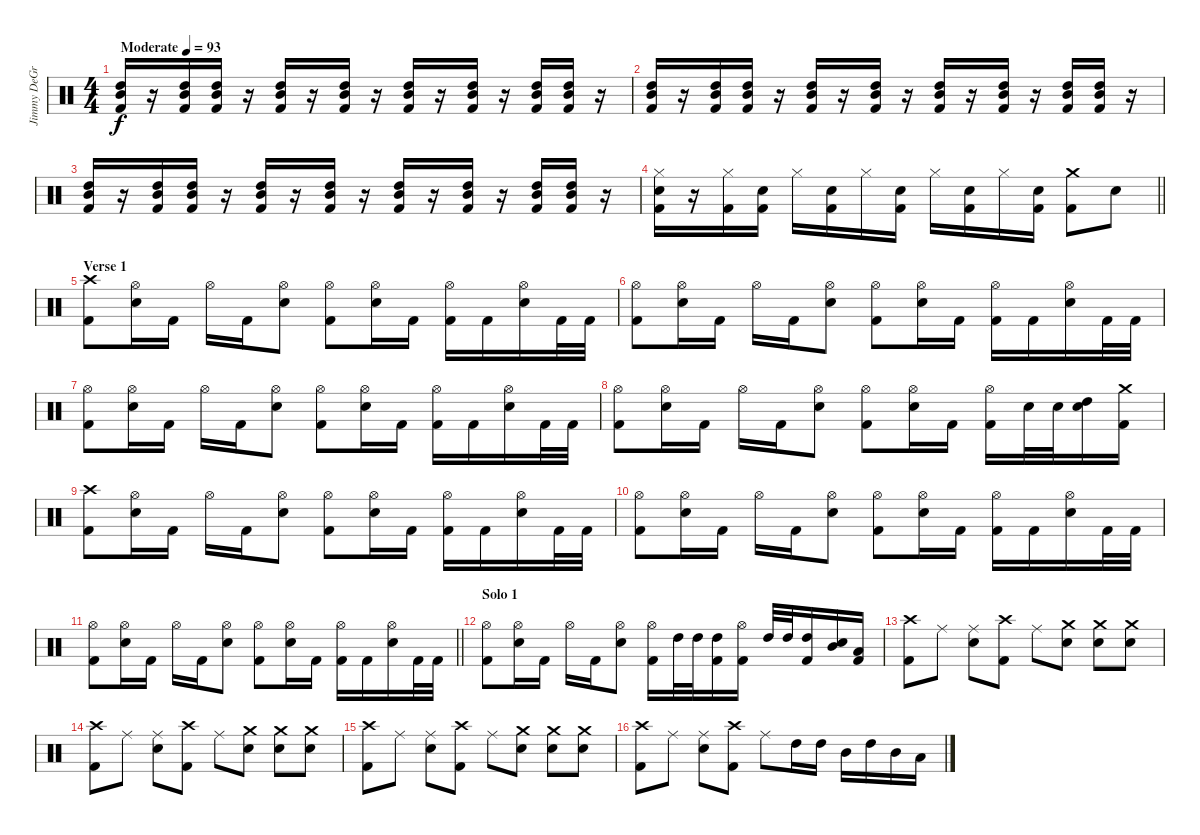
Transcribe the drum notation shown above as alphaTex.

\track ("Jimmy DeGrasso" "Jimmy DeGr") {instrument percussion}
\staff {score}
\articulation defaults
\ts (4 4)
\tempo (93 "Moderate")
\clef neutral
\ks c
("High Tom (hit)" "Mid Tom (hit)" "Kick (hit) 2").16{dy f} r.16 ("High Tom (hit)" "Mid Tom (hit)" "Kick (hit) 2").16 ("High Tom (hit)" "Mid Tom (hit)" "Kick (hit) 2").16 r.16 ("High Tom (hit)" "Mid Tom (hit)" "Kick (hit) 2").16 r.16 ("High Tom (hit)" "Mid Tom (hit)" "Kick (hit) 2").16 r.16 ("High Tom (hit)" "Mid Tom (hit)" "Kick (hit) 2").16 r.16 ("High Tom (hit)" "Mid Tom (hit)" "Kick (hit) 2").16 r.16 ("High Tom (hit)" "Mid Tom (hit)" "Kick (hit) 2").16 ("High Tom (hit)" "Mid Tom (hit)" "Kick (hit) 2").16 r.16 |
("High Tom (hit)" "Mid Tom (hit)" "Kick (hit) 2").16 r.16 ("High Tom (hit)" "Mid Tom (hit)" "Kick (hit) 2").16 ("High Tom (hit)" "Mid Tom (hit)" "Kick (hit) 2").16 r.16 ("High Tom (hit)" "Mid Tom (hit)" "Kick (hit) 2").16 r.16 ("High Tom (hit)" "Mid Tom (hit)" "Kick (hit) 2").16 r.16 ("High Tom (hit)" "Mid Tom (hit)" "Kick (hit) 2").16 r.16 ("High Tom (hit)" "Mid Tom (hit)" "Kick (hit) 2").16 r.16 ("High Tom (hit)" "Mid Tom (hit)" "Kick (hit) 2").16 ("High Tom (hit)" "Mid Tom (hit)" "Kick (hit) 2").16 r.16 |
("High Tom (hit)" "Mid Tom (hit)" "Kick (hit) 2").16 r.16 ("High Tom (hit)" "Mid Tom (hit)" "Kick (hit) 2").16 ("High Tom (hit)" "Mid Tom (hit)" "Kick (hit) 2").16 r.16 ("High Tom (hit)" "Mid Tom (hit)" "Kick (hit) 2").16 r.16 ("High Tom (hit)" "Mid Tom (hit)" "Kick (hit) 2").16 r.16 ("High Tom (hit)" "Mid Tom (hit)" "Kick (hit) 2").16 r.16 ("High Tom (hit)" "Mid Tom (hit)" "Kick (hit) 2").16 r.16 ("High Tom (hit)" "Mid Tom (hit)" "Kick (hit) 2").16 ("High Tom (hit)" "Mid Tom (hit)" "Kick (hit) 2").16 r.16 |
\barLineRight lightlight
("Hi-Hat (closed)" "Electric Snare (hit)" "Kick (hit) 2").16 r.16 ("Hi-Hat (closed)" "Kick (hit) 2").16 ("Electric Snare (hit)" "Kick (hit) 2").16 "Hi-Hat (closed)".16 ("Electric Snare (hit)" "Kick (hit) 2").16 "Hi-Hat (closed)".16 ("Electric Snare (hit)" "Kick (hit) 2").16 "Hi-Hat (closed)".16 ("Electric Snare (hit)" "Kick (hit) 2").16 "Hi-Hat (closed)".16 ("Electric Snare (hit)" "Kick (hit) 2").16 ("Crash medium (hit)" "Kick (hit) 2").8 "Electric Snare (hit)".8 |
\section ("" "Verse 1")
("Crash high (hit)" "Kick (hit) 2").8 ("Hi-Hat (open)" "Electric Snare (hit)").16 "Kick (hit) 2".16 "Hi-Hat (open)".16 "Kick (hit) 2".16 ("Hi-Hat (open)" "Electric Snare (hit)").8 ("Hi-Hat (open)" "Kick (hit) 2").8 ("Hi-Hat (open)" "Electric Snare (hit)").16 "Kick (hit) 2".16 ("Hi-Hat (open)" "Kick (hit) 2").16 "Kick (hit) 2".16 ("Hi-Hat (open)" "Electric Snare (hit)").16 "Kick (hit) 2".32 "Kick (hit) 2".32 |
("Hi-Hat (open)" "Kick (hit) 2").8 ("Hi-Hat (open)" "Electric Snare (hit)").16 "Kick (hit) 2".16 "Hi-Hat (open)".16 "Kick (hit) 2".16 ("Hi-Hat (open)" "Electric Snare (hit)").8 ("Hi-Hat (open)" "Kick (hit) 2").8 ("Hi-Hat (open)" "Electric Snare (hit)").16 "Kick (hit) 2".16 ("Hi-Hat (open)" "Kick (hit) 2").16 "Kick (hit) 2".16 ("Hi-Hat (open)" "Electric Snare (hit)").16 "Kick (hit) 2".32 "Kick (hit) 2".32 |
("Hi-Hat (open)" "Kick (hit) 2").8 ("Hi-Hat (open)" "Electric Snare (hit)").16 "Kick (hit) 2".16 "Hi-Hat (open)".16 "Kick (hit) 2".16 ("Hi-Hat (open)" "Electric Snare (hit)").8 ("Hi-Hat (open)" "Kick (hit) 2").8 ("Hi-Hat (open)" "Electric Snare (hit)").16 "Kick (hit) 2".16 ("Hi-Hat (open)" "Kick (hit) 2").16 "Kick (hit) 2".16 ("Hi-Hat (open)" "Electric Snare (hit)").16 "Kick (hit) 2".32 "Kick (hit) 2".32 |
("Hi-Hat (open)" "Kick (hit) 2").8 ("Hi-Hat (open)" "Electric Snare (hit)").16 "Kick (hit) 2".16 "Hi-Hat (open)".16 "Kick (hit) 2".16 ("Hi-Hat (open)" "Electric Snare (hit)").8 ("Hi-Hat (open)" "Kick (hit) 2").8 ("Hi-Hat (open)" "Electric Snare (hit)").16 "Kick (hit) 2".16 ("Hi-Hat (open)" "Kick (hit) 2").16 "Electric Snare (hit)".32 "Electric Snare (hit)".32 ("High Tom (hit)" "Electric Snare (hit)").16 ("Crash medium (hit)" "Kick (hit) 2").16 |
("Crash high (hit)" "Kick (hit) 2").8 ("Hi-Hat (open)" "Electric Snare (hit)").16 "Kick (hit) 2".16 "Hi-Hat (open)".16 "Kick (hit) 2".16 ("Hi-Hat (open)" "Electric Snare (hit)").8 ("Hi-Hat (open)" "Kick (hit) 2").8 ("Hi-Hat (open)" "Electric Snare (hit)").16 "Kick (hit) 2".16 ("Hi-Hat (open)" "Kick (hit) 2").16 "Kick (hit) 2".16 ("Hi-Hat (open)" "Electric Snare (hit)").16 "Kick (hit) 2".32 "Kick (hit) 2".32 |
("Hi-Hat (open)" "Kick (hit) 2").8 ("Hi-Hat (open)" "Electric Snare (hit)").16 "Kick (hit) 2".16 "Hi-Hat (open)".16 "Kick (hit) 2".16 ("Hi-Hat (open)" "Electric Snare (hit)").8 ("Hi-Hat (open)" "Kick (hit) 2").8 ("Hi-Hat (open)" "Electric Snare (hit)").16 "Kick (hit) 2".16 ("Hi-Hat (open)" "Kick (hit) 2").16 "Kick (hit) 2".16 ("Hi-Hat (open)" "Electric Snare (hit)").16 "Kick (hit) 2".32 "Kick (hit) 2".32 |
\barLineRight lightlight
("Hi-Hat (open)" "Kick (hit) 2").8 ("Hi-Hat (open)" "Electric Snare (hit)").16 "Kick (hit) 2".16 "Hi-Hat (open)".16 "Kick (hit) 2".16 ("Hi-Hat (open)" "Electric Snare (hit)").8 ("Hi-Hat (open)" "Kick (hit) 2").8 ("Hi-Hat (open)" "Electric Snare (hit)").16 "Kick (hit) 2".16 ("Hi-Hat (open)" "Kick (hit) 2").16 "Kick (hit) 2".16 ("Hi-Hat (open)" "Electric Snare (hit)").16 "Kick (hit) 2".32 "Kick (hit) 2".32 |
\section ("" "Solo 1")
("Hi-Hat (open)" "Kick (hit) 2").8 ("Hi-Hat (open)" "Electric Snare (hit)").16 "Kick (hit) 2".16 "Hi-Hat (open)".16 "Kick (hit) 2".16 ("Hi-Hat (open)" "Electric Snare (hit)").8 ("Hi-Hat (open)" "Kick (hit) 2").16 "High Tom (hit)".32 "High Tom (hit)".32 ("High Tom (hit)" "Kick (hit) 2").16 ("Hi-Hat (open)" "Kick (hit) 2").16 "High Tom (hit)".32 "High Tom (hit)".32 ("High Tom (hit)" "Kick (hit) 2").16 ("Mid Tom (hit)" "Electric Snare (hit)").16 ("Low Tom (hit)" "Kick (hit) 2").16 |
("Crash high (hit)" "Kick (hit) 2").8 "Ride (middle)".8 ("Ride (middle)" "Electric Snare (hit)").8 ("Crash high (hit)" "Kick (hit) 2").8 "Ride (middle)".8 ("Crash medium (hit)" "Electric Snare (hit)").8 ("Crash medium (hit)" "Electric Snare (hit)").8 ("Crash medium (hit)" "Electric Snare (hit)").8 |
("Crash high (hit)" "Kick (hit) 2").8 "Ride (middle)".8 ("Ride (middle)" "Electric Snare (hit)").8 ("Crash high (hit)" "Kick (hit) 2").8 "Ride (middle)".8 ("Crash medium (hit)" "Electric Snare (hit)").8 ("Crash medium (hit)" "Electric Snare (hit)").8 ("Crash medium (hit)" "Electric Snare (hit)").8 |
("Crash high (hit)" "Kick (hit) 2").8 "Ride (middle)".8 ("Ride (middle)" "Electric Snare (hit)").8 ("Crash high (hit)" "Kick (hit) 2").8 "Ride (middle)".8 ("Crash medium (hit)" "Electric Snare (hit)").8 ("Crash medium (hit)" "Electric Snare (hit)").8 ("Crash medium (hit)" "Electric Snare (hit)").8 |
("Crash high (hit)" "Kick (hit) 2").8 "Ride (middle)".8 ("Ride (middle)" "Electric Snare (hit)").8 ("Crash high (hit)" "Kick (hit) 2").8 "Ride (middle)".8 "High Tom (hit)".16 "High Tom (hit)".16 "Mid Tom (hit)".16 "High Tom (hit)".16 "Mid Tom (hit)".16 "Low Tom (hit)".16
